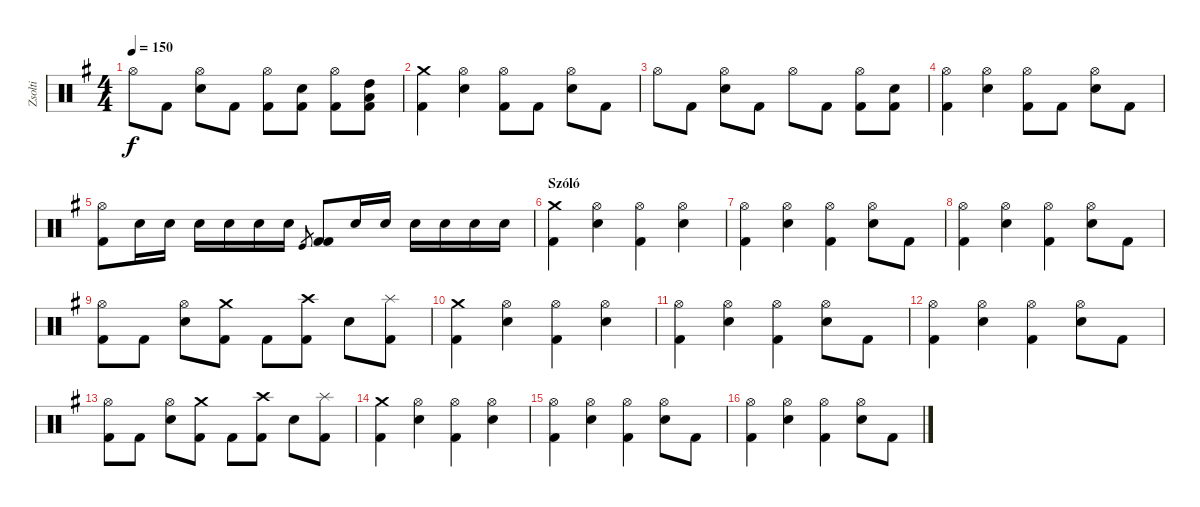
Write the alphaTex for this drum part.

\track ("Zsolti" "Zsolti") {instrument percussion}
\staff {score}
\articulation defaults
\ts (4 4)
\tempo 150
\clef neutral
\ks eminor "Hi-Hat (open)".8{dy f} "Kick (hit) 2".8
("Hi-Hat (open)" "Snare (hit) 2").8 "Kick (hit) 2".8 ("Hi-Hat (open)" "Kick (hit) 2").8 ("Snare (hit) 2" "Kick (hit) 2").8 ("Hi-Hat (open)" "Kick (hit) 2").8 ("High Tom (hit)" "Low Tom (hit)" "Kick (hit) 2").8 |
("Crash medium (hit)" "Kick (hit) 2").4 ("Hi-Hat (open)" "Snare (hit) 2").4 ("Hi-Hat (open)" "Kick (hit) 2").8 "Kick (hit) 2".8 ("Hi-Hat (open)" "Snare (hit) 2").8 "Kick (hit) 2".8 |
"Hi-Hat (open)".8 "Kick (hit) 2".8 ("Hi-Hat (open)" "Snare (hit) 2").8 "Kick (hit) 2".8 "Hi-Hat (open)".8 "Kick (hit) 2".8 ("Hi-Hat (open)" "Kick (hit) 2").8 ("Snare (hit) 2" "Kick (hit) 2").8 |
("Hi-Hat (open)" "Kick (hit) 2").4 ("Hi-Hat (open)" "Snare (hit) 2").4 ("Hi-Hat (open)" "Kick (hit) 2").8 "Kick (hit) 2".8 ("Hi-Hat (open)" "Snare (hit) 2").8 "Kick (hit) 2".8 |
("Hi-Hat (open)" "Kick (hit) 2").8 "Snare (hit) 2".16 "Snare (hit) 2".16 "Snare (hit) 2".16 "Snare (hit) 2".16 "Snare (hit) 2".16 "Snare (hit) 2".16 "Kick (hit)".8{gr} ("Kick (hit) 2" "Kick (hit) 2").8 "Snare (hit) 2".16 "Snare (hit) 2".16 "Snare (hit) 2".16 "Snare (hit) 2".16 "Snare (hit) 2".16 "Snare (hit) 2".16 |
\section ("" "Szóló")
("Crash medium (hit)" "Kick (hit) 2").4 ("Hi-Hat (open)" "Snare (hit) 2").4 ("Hi-Hat (open)" "Kick (hit) 2").4 ("Hi-Hat (open)" "Snare (hit) 2").4 |
("Hi-Hat (open)" "Kick (hit) 2").4 ("Hi-Hat (open)" "Snare (hit) 2").4 ("Hi-Hat (open)" "Kick (hit) 2").4 ("Hi-Hat (open)" "Snare (hit) 2").8 "Kick (hit) 2".8 |
("Hi-Hat (open)" "Kick (hit) 2").4 ("Hi-Hat (open)" "Snare (hit) 2").4 ("Hi-Hat (open)" "Kick (hit) 2").4 ("Hi-Hat (open)" "Snare (hit) 2").8 "Kick (hit) 2".8 |
("Hi-Hat (open)" "Kick (hit) 2").8 "Kick (hit) 2".8 ("Hi-Hat (open)" "Snare (hit) 2").8 ("Crash medium (hit)" "Kick (hit) 2").8 "Kick (hit) 2".8 ("Crash high (hit)" "Kick (hit) 2").8 "Snare (hit) 2".8 ("Splash (hit)" "Kick (hit) 2").8 |
("Crash medium (hit)" "Kick (hit) 2").4 ("Hi-Hat (open)" "Snare (hit) 2").4 ("Hi-Hat (open)" "Kick (hit) 2").4 ("Hi-Hat (open)" "Snare (hit) 2").4 |
("Hi-Hat (open)" "Kick (hit) 2").4 ("Hi-Hat (open)" "Snare (hit) 2").4 ("Hi-Hat (open)" "Kick (hit) 2").4 ("Hi-Hat (open)" "Snare (hit) 2").8 "Kick (hit) 2".8 |
("Hi-Hat (open)" "Kick (hit) 2").4 ("Hi-Hat (open)" "Snare (hit) 2").4 ("Hi-Hat (open)" "Kick (hit) 2").4 ("Hi-Hat (open)" "Snare (hit) 2").8 "Kick (hit) 2".8 |
("Hi-Hat (open)" "Kick (hit) 2").8 "Kick (hit) 2".8 ("Hi-Hat (open)" "Snare (hit) 2").8 ("Crash medium (hit)" "Kick (hit) 2").8 "Kick (hit) 2".8 ("Crash high (hit)" "Kick (hit) 2").8 "Snare (hit) 2".8 ("Splash (hit)" "Kick (hit) 2").8 |
("Crash medium (hit)" "Kick (hit) 2").4 ("Hi-Hat (open)" "Snare (hit) 2").4 ("Hi-Hat (open)" "Kick (hit) 2").4 ("Hi-Hat (open)" "Snare (hit) 2").4 |
("Hi-Hat (open)" "Kick (hit) 2").4 ("Hi-Hat (open)" "Snare (hit) 2").4 ("Hi-Hat (open)" "Kick (hit) 2").4 ("Hi-Hat (open)" "Snare (hit) 2").8 "Kick (hit) 2".8 |
("Hi-Hat (open)" "Kick (hit) 2").4 ("Hi-Hat (open)" "Snare (hit) 2").4 ("Hi-Hat (open)" "Kick (hit) 2").4 ("Hi-Hat (open)" "Snare (hit) 2").8 "Kick (hit) 2".8
